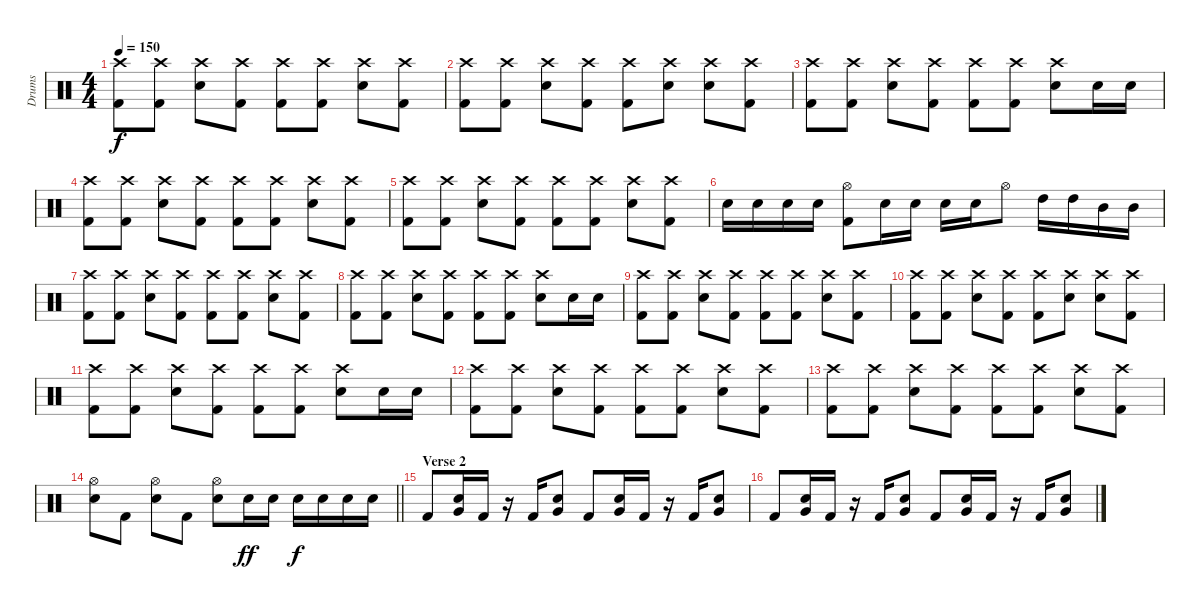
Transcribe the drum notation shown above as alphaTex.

\track ("Drums" "Drums") {instrument percussion}
\staff {score}
\articulation defaults
\ts (4 4)
\tempo 150
\clef neutral
\ks c
("Crash high (hit)" "Kick (hit) 2").8{dy f} ("Crash high (hit)" "Kick (hit) 2").8 ("Crash high (hit)" "Electric Snare (hit)").8 ("Crash high (hit)" "Kick (hit) 2").8 ("Crash high (hit)" "Kick (hit) 2").8 ("Crash high (hit)" "Kick (hit) 2").8 ("Crash high (hit)" "Electric Snare (hit)").8 ("Crash high (hit)" "Kick (hit) 2").8 |
("Crash high (hit)" "Kick (hit) 2").8 ("Crash high (hit)" "Kick (hit) 2").8 ("Crash high (hit)" "Electric Snare (hit)").8 ("Crash high (hit)" "Kick (hit) 2").8 ("Crash high (hit)" "Kick (hit) 2").8 ("Crash high (hit)" "Electric Snare (hit)").8 ("Crash high (hit)" "Electric Snare (hit)").8 ("Crash high (hit)" "Kick (hit) 2").8 |
("Crash high (hit)" "Kick (hit) 2").8 ("Crash high (hit)" "Kick (hit) 2").8 ("Crash high (hit)" "Electric Snare (hit)").8 ("Crash high (hit)" "Kick (hit) 2").8 ("Crash high (hit)" "Kick (hit) 2").8 ("Crash high (hit)" "Kick (hit) 2").8 ("Crash high (hit)" "Electric Snare (hit)").8 "Electric Snare (hit)".16 "Electric Snare (hit)".16 |
("Crash high (hit)" "Kick (hit) 2").8 ("Crash high (hit)" "Kick (hit) 2").8 ("Crash high (hit)" "Electric Snare (hit)").8 ("Crash high (hit)" "Kick (hit) 2").8 ("Crash high (hit)" "Kick (hit) 2").8 ("Crash high (hit)" "Kick (hit) 2").8 ("Crash high (hit)" "Electric Snare (hit)").8 ("Crash high (hit)" "Kick (hit) 2").8 |
("Crash high (hit)" "Kick (hit) 2").8 ("Crash high (hit)" "Kick (hit) 2").8 ("Crash high (hit)" "Electric Snare (hit)").8 ("Crash high (hit)" "Kick (hit) 2").8 ("Crash high (hit)" "Kick (hit) 2").8 ("Crash high (hit)" "Kick (hit) 2").8 ("Crash high (hit)" "Electric Snare (hit)").8 ("Crash high (hit)" "Kick (hit) 2").8 |
"Electric Snare (hit)".16 "Electric Snare (hit)".16 "Electric Snare (hit)".16 "Electric Snare (hit)".16 ("Hi-Hat (open)" "Kick (hit) 2").8 "Electric Snare (hit)".16 "Electric Snare (hit)".16 "Electric Snare (hit)".16 "Electric Snare (hit)".16 "Hi-Hat (open)".8 "High Tom (hit)".16 "High Tom (hit)".16 "Mid Tom (hit)".16 "Mid Tom (hit)".16 |
("Crash high (hit)" "Kick (hit) 2").8 ("Crash high (hit)" "Kick (hit) 2").8 ("Crash high (hit)" "Electric Snare (hit)").8 ("Crash high (hit)" "Kick (hit) 2").8 ("Crash high (hit)" "Kick (hit) 2").8 ("Crash high (hit)" "Kick (hit) 2").8 ("Crash high (hit)" "Electric Snare (hit)").8 ("Crash high (hit)" "Kick (hit) 2").8 |
("Crash high (hit)" "Kick (hit) 2").8 ("Crash high (hit)" "Kick (hit) 2").8 ("Crash high (hit)" "Electric Snare (hit)").8 ("Crash high (hit)" "Kick (hit) 2").8 ("Crash high (hit)" "Kick (hit) 2").8 ("Crash high (hit)" "Kick (hit) 2").8 ("Crash high (hit)" "Electric Snare (hit)").8 "Electric Snare (hit)".16 "Electric Snare (hit)".16 |
("Crash high (hit)" "Kick (hit) 2").8 ("Crash high (hit)" "Kick (hit) 2").8 ("Crash high (hit)" "Electric Snare (hit)").8 ("Crash high (hit)" "Kick (hit) 2").8 ("Crash high (hit)" "Kick (hit) 2").8 ("Crash high (hit)" "Kick (hit) 2").8 ("Crash high (hit)" "Electric Snare (hit)").8 ("Crash high (hit)" "Kick (hit) 2").8 |
("Crash high (hit)" "Kick (hit) 2").8 ("Crash high (hit)" "Kick (hit) 2").8 ("Crash high (hit)" "Electric Snare (hit)").8 ("Crash high (hit)" "Kick (hit) 2").8 ("Crash high (hit)" "Kick (hit) 2").8 ("Crash high (hit)" "Electric Snare (hit)").8 ("Crash high (hit)" "Electric Snare (hit)").8 ("Crash high (hit)" "Kick (hit) 2").8 |
("Crash high (hit)" "Kick (hit) 2").8 ("Crash high (hit)" "Kick (hit) 2").8 ("Crash high (hit)" "Electric Snare (hit)").8 ("Crash high (hit)" "Kick (hit) 2").8 ("Crash high (hit)" "Kick (hit) 2").8 ("Crash high (hit)" "Kick (hit) 2").8 ("Crash high (hit)" "Electric Snare (hit)").8 "Electric Snare (hit)".16 "Electric Snare (hit)".16 |
("Crash high (hit)" "Kick (hit) 2").8 ("Crash high (hit)" "Kick (hit) 2").8 ("Crash high (hit)" "Electric Snare (hit)").8 ("Crash high (hit)" "Kick (hit) 2").8 ("Crash high (hit)" "Kick (hit) 2").8 ("Crash high (hit)" "Kick (hit) 2").8 ("Crash high (hit)" "Electric Snare (hit)").8 ("Crash high (hit)" "Kick (hit) 2").8 |
("Crash high (hit)" "Kick (hit) 2").8 ("Crash high (hit)" "Kick (hit) 2").8 ("Crash high (hit)" "Electric Snare (hit)").8 ("Crash high (hit)" "Kick (hit) 2").8 ("Crash high (hit)" "Kick (hit) 2").8 ("Crash high (hit)" "Kick (hit) 2").8 ("Crash high (hit)" "Electric Snare (hit)").8 ("Crash high (hit)" "Kick (hit) 2").8 |
\barLineRight lightlight
("Hi-Hat (open)" "Electric Snare (hit)").8 "Kick (hit) 2".8 ("Hi-Hat (open)" "Electric Snare (hit)").8 "Kick (hit) 2".8 ("Hi-Hat (open)" "Electric Snare (hit)").8 "Electric Snare (hit)".16{dy ff} "Electric Snare (hit)".16 "Electric Snare (hit)".16{dy f} "Electric Snare (hit)".16 "Electric Snare (hit)".16 "Electric Snare (hit)".16 |
\section ("" "Verse 2")
"Kick (hit) 2".8 ("Very Low Tom (hit)" "Electric Snare (hit)").16 "Kick (hit) 2".16 r.16 "Kick (hit) 2".16 ("Very Low Tom (hit)" "Electric Snare (hit)").8 "Kick (hit) 2".8 ("Very Low Tom (hit)" "Electric Snare (hit)").16 "Kick (hit) 2".16 r.16 "Kick (hit) 2".16 ("Very Low Tom (hit)" "Electric Snare (hit)").8 |
"Kick (hit) 2".8 ("Very Low Tom (hit)" "Electric Snare (hit)").16 "Kick (hit) 2".16 r.16 "Kick (hit) 2".16 ("Very Low Tom (hit)" "Electric Snare (hit)").8 "Kick (hit) 2".8 ("Very Low Tom (hit)" "Electric Snare (hit)").16 "Kick (hit) 2".16 r.16 "Kick (hit) 2".16 ("Very Low Tom (hit)" "Electric Snare (hit)").8
